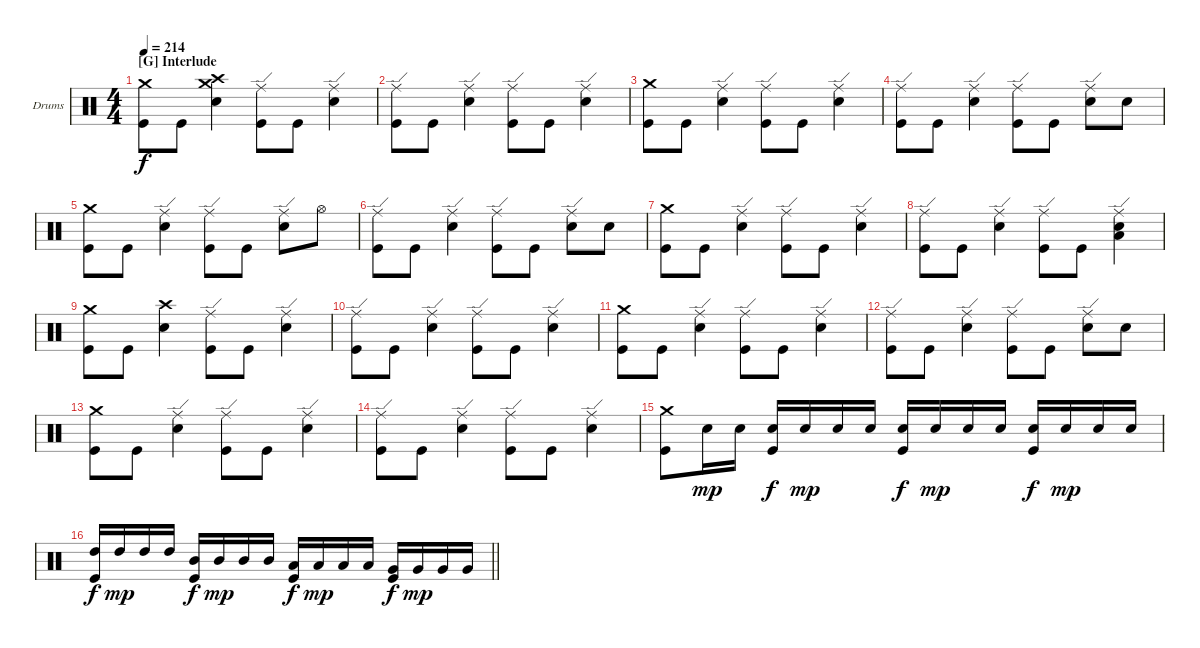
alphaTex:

\bracketExtendMode groupsimilarinstruments
\firstSystemTrackNameOrientation horizontal
\otherSystemsTrackNameOrientation horizontal
\track ("Drumkit" "Drums") {instrument percussion}
\staff {score}
\articulation defaults
\ts (4 4)
\section ("G" "Interlude")
\tempo 214
\clef neutral
\ks c
("Kick (hit)" "Crash medium (hit)").8{dy f} "Kick (hit)".8 ("Snare (hit) 2" "Crash high (hit)" "Crash medium (hit)").4 ("Ride (edge)" "Kick (hit)").8 "Kick (hit)".8 ("Snare (hit) 2" "Ride (edge)").4 |
("Ride (edge)" "Kick (hit)").8 "Kick (hit)".8 ("Snare (hit) 2" "Ride (edge)").4 ("Ride (edge)" "Kick (hit)").8 "Kick (hit)".8 ("Snare (hit) 2" "Ride (edge)").4 |
("Kick (hit)" "Crash medium (hit)").8 "Kick (hit)".8 ("Snare (hit) 2" "Ride (edge)").4 ("Ride (edge)" "Kick (hit)").8 "Kick (hit)".8 ("Snare (hit) 2" "Ride (edge)").4 |
("Ride (edge)" "Kick (hit)").8 "Kick (hit)".8 ("Snare (hit) 2" "Ride (edge)").4 ("Ride (edge)" "Kick (hit)").8 "Kick (hit)".8 ("Snare (hit) 2" "Ride (edge)").8 "Snare (hit) 2".8 |
("Kick (hit)" "Crash medium (hit)").8 "Kick (hit)".8 ("Snare (hit) 2" "Ride (edge)").4 ("Ride (edge)" "Kick (hit)").8 "Kick (hit)".8 ("Snare (hit) 2" "Ride (edge)").8 "Hi-Hat (open)".8 |
("Ride (edge)" "Kick (hit)").8 "Kick (hit)".8 ("Snare (hit) 2" "Ride (edge)").4 ("Ride (edge)" "Kick (hit)").8 "Kick (hit)".8 ("Snare (hit) 2" "Ride (edge)").8 "Snare (hit) 2".8 |
("Kick (hit)" "Crash medium (hit)").8 "Kick (hit)".8 ("Snare (hit) 2" "Ride (edge)").4 ("Ride (edge)" "Kick (hit)").8 "Kick (hit)".8 ("Snare (hit) 2" "Ride (edge)").4 |
("Ride (edge)" "Kick (hit)").8 "Kick (hit)".8 ("Snare (hit) 2" "Ride (edge)").4 ("Ride (edge)" "Kick (hit)").8 "Kick (hit)".8 ("Snare (hit) 2" "Ride (edge)" "Low Tom (hit)").4 |
("Kick (hit)" "Crash medium (hit)").8 "Kick (hit)".8 ("Snare (hit) 2" "Crash high (hit)").4 ("Ride (edge)" "Kick (hit)").8 "Kick (hit)".8 ("Snare (hit) 2" "Ride (edge)").4 |
("Ride (edge)" "Kick (hit)").8 "Kick (hit)".8 ("Snare (hit) 2" "Ride (edge)").4 ("Ride (edge)" "Kick (hit)").8 "Kick (hit)".8 ("Snare (hit) 2" "Ride (edge)").4 |
("Kick (hit)" "Crash medium (hit)").8 "Kick (hit)".8 ("Snare (hit) 2" "Ride (edge)").4 ("Ride (edge)" "Kick (hit)").8 "Kick (hit)".8 ("Snare (hit) 2" "Ride (edge)").4 |
("Ride (edge)" "Kick (hit)").8 "Kick (hit)".8 ("Snare (hit) 2" "Ride (edge)").4 ("Ride (edge)" "Kick (hit)").8 "Kick (hit)".8 ("Snare (hit) 2" "Ride (edge)").8 "Snare (hit) 2".8 |
("Kick (hit)" "Crash medium (hit)").8 "Kick (hit)".8 ("Snare (hit) 2" "Ride (edge)").4 ("Ride (edge)" "Kick (hit)").8 "Kick (hit)".8 ("Snare (hit) 2" "Ride (edge)").4 |
("Ride (edge)" "Kick (hit)").8 "Kick (hit)".8 ("Snare (hit) 2" "Ride (edge)").4 ("Kick (hit)" "Ride (edge)").8 "Kick (hit)".8 ("Snare (hit) 2" "Ride (edge)").4 |
("Kick (hit)" "Crash medium (hit)").8 "Snare (hit) 2".16{dy mp} "Snare (hit) 2".16 ("Snare (hit) 2" "Kick (hit)").16{dy f} "Snare (hit) 2".16{dy mp} "Snare (hit) 2".16 "Snare (hit) 2".16 ("Snare (hit) 2" "Kick (hit)").16{dy f} "Snare (hit) 2".16{dy mp} "Snare (hit) 2".16 "Snare (hit) 2".16 ("Snare (hit) 2" "Kick (hit)").16{dy f} "Snare (hit) 2".16{dy mp} "Snare (hit) 2".16 "Snare (hit) 2".16 |
\barLineRight lightlight
("High Tom (hit)" "Kick (hit)").16{dy f} "High Tom (hit)".16{dy mp} "High Tom (hit)".16 "High Tom (hit)".16 ("Mid Tom (hit)" "Kick (hit)").16{dy f} "Mid Tom (hit)".16{dy mp} "Mid Tom (hit)".16 "Mid Tom (hit)".16 ("Low Tom (hit)" "Kick (hit)").16{dy f} "Low Tom (hit)".16{dy mp} "Low Tom (hit)".16 "Low Tom (hit)".16 ("Very Low Tom (hit)" "Kick (hit)").16{dy f} "Very Low Tom (hit)".16{dy mp} "Very Low Tom (hit)".16 "Very Low Tom (hit)".16
